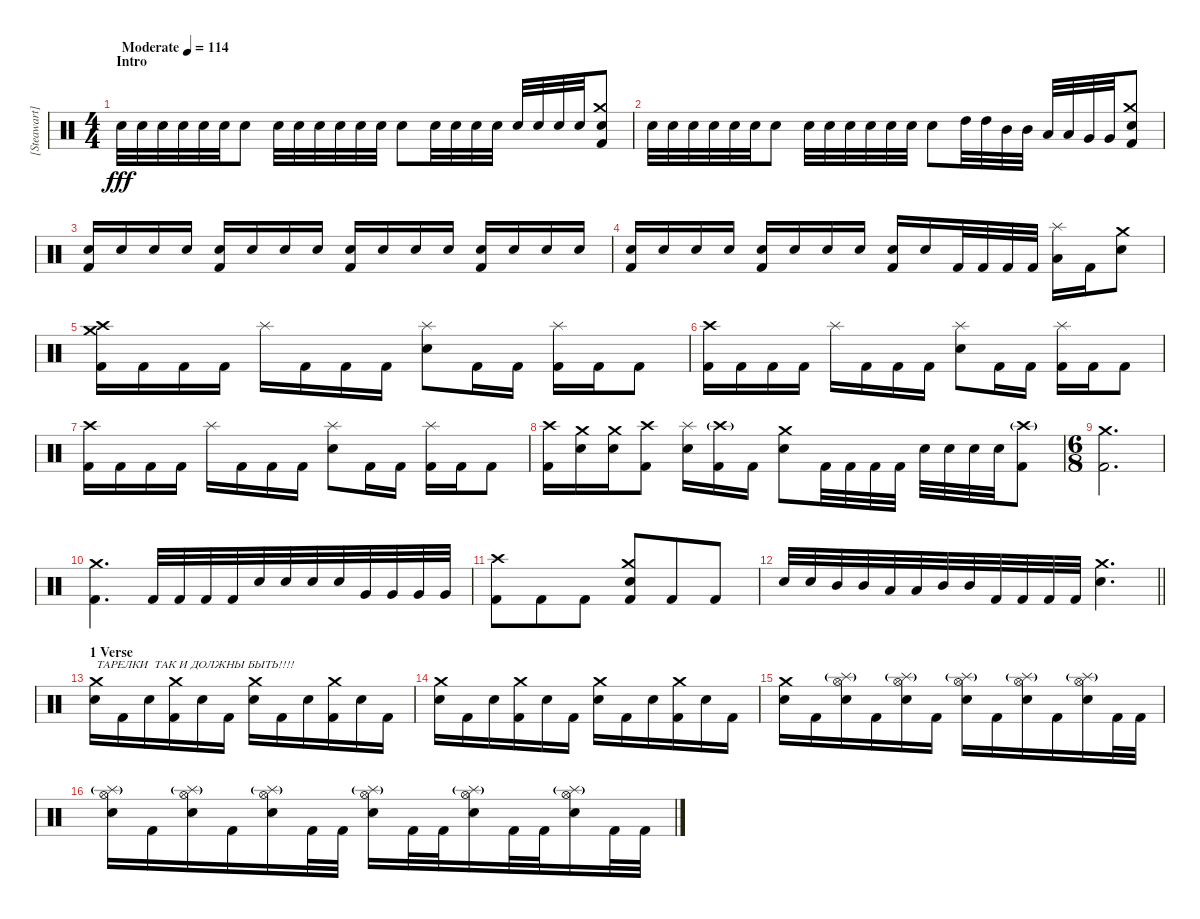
\track ("[Steawart] Drums" "[Steawart]") {solo instrument percussion}
\staff {score}
\articulation defaults
\ts (4 4)
\section ("" "Intro ")
\tempo (114 "Moderate")
\clef neutral
\ks c "Electric Snare (hit)".32{dy fff} "Electric Snare (hit)".32 "Electric Snare (hit)".32 "Electric Snare (hit)".32 "Electric Snare (hit)".32 "Electric Snare (hit)".32 "Electric Snare (hit)".8 "Electric Snare (hit)".32 "Electric Snare (hit)".32 "Electric Snare (hit)".32 "Electric Snare (hit)".32 "Electric Snare (hit)".32 "Electric Snare (hit)".32 "Electric Snare (hit)".8 "Electric Snare (hit)".32 "Electric Snare (hit)".32 "Electric Snare (hit)".32 "Electric Snare (hit)".32 "Electric Snare (hit)".32 "Electric Snare (hit)".32 "Electric Snare (hit)".32 "Electric Snare (hit)".32
("Crash medium (hit)" "Electric Snare (hit)" "Kick (hit) 2").8 |
"Electric Snare (hit)".32 "Electric Snare (hit)".32 "Electric Snare (hit)".32 "Electric Snare (hit)".32 "Electric Snare (hit)".32 "Electric Snare (hit)".32 "Electric Snare (hit)".8 "Electric Snare (hit)".32 "Electric Snare (hit)".32 "Electric Snare (hit)".32 "Electric Snare (hit)".32 "Electric Snare (hit)".32 "Electric Snare (hit)".32 "Electric Snare (hit)".8 "High Tom (hit)".32 "High Tom (hit)".32 "Mid Tom (hit)".32 "Mid Tom (hit)".32 "Low Tom (hit)".32 "Low Tom (hit)".32 "Very Low Tom (hit)".32 "Very Low Tom (hit)".32 ("Crash medium (hit)" "Electric Snare (hit)" "Kick (hit) 2").8 |
("Electric Snare (hit)" "Kick (hit) 2").16 "Electric Snare (hit)".16 "Electric Snare (hit)".16 "Electric Snare (hit)".16 ("Electric Snare (hit)" "Kick (hit) 2").16 "Electric Snare (hit)".16 "Electric Snare (hit)".16 "Electric Snare (hit)".16 ("Electric Snare (hit)" "Kick (hit) 2").16 "Electric Snare (hit)".16 "Electric Snare (hit)".16 "Electric Snare (hit)".16 ("Electric Snare (hit)" "Kick (hit) 2").16 "Electric Snare (hit)".16 "Electric Snare (hit)".16 "Electric Snare (hit)".16 |
("Electric Snare (hit)" "Kick (hit) 2").16 "Electric Snare (hit)".16 "Electric Snare (hit)".16 "Electric Snare (hit)".16 ("Electric Snare (hit)" "Kick (hit) 2").16 "Electric Snare (hit)".16 "Electric Snare (hit)".16 "Electric Snare (hit)".16 ("Electric Snare (hit)" "Kick (hit) 2").16 "Electric Snare (hit)".16 "Kick (hit) 2".32 "Kick (hit) 2".32 "Kick (hit) 2".32 "Kick (hit) 2".32 ("Splash (hit)" "Low Tom (hit)").16 "Kick (hit) 2".16 ("Crash medium (hit)" "Electric Snare (hit)").8 |
("Crash medium (hit)" "Crash high (hit)" "Kick (hit) 2").16 "Kick (hit) 2".16 "Kick (hit) 2".16 "Kick (hit) 2".16 "Splash (hit)".16 "Kick (hit) 2".16 "Kick (hit) 2".16 "Kick (hit) 2".16 ("Splash (hit)" "Electric Snare (hit)").8 "Kick (hit) 2".16 "Kick (hit) 2".16 ("Splash (hit)" "Kick (hit) 2").16 "Kick (hit) 2".16 "Kick (hit) 2".8 |
("Crash high (hit)" "Kick (hit) 2").16 "Kick (hit) 2".16 "Kick (hit) 2".16 "Kick (hit) 2".16 "Splash (hit)".16 "Kick (hit) 2".16 "Kick (hit) 2".16 "Kick (hit) 2".16 ("Splash (hit)" "Electric Snare (hit)").8 "Kick (hit) 2".16 "Kick (hit) 2".16 ("Splash (hit)" "Kick (hit) 2").16 "Kick (hit) 2".16 "Kick (hit) 2".8 |
("Crash high (hit)" "Kick (hit) 2").16 "Kick (hit) 2".16 "Kick (hit) 2".16 "Kick (hit) 2".16 "Splash (hit)".16 "Kick (hit) 2".16 "Kick (hit) 2".16 "Kick (hit) 2".16 ("Splash (hit)" "Electric Snare (hit)").8 "Kick (hit) 2".16 "Kick (hit) 2".16 ("Splash (hit)" "Kick (hit) 2").16 "Kick (hit) 2".16 "Kick (hit) 2".8 |
("Crash high (hit)" "Kick (hit) 2").16 ("Crash medium (hit)" "Electric Snare (hit)").16 ("Crash medium (hit)" "Electric Snare (hit)").16 ("Crash high (hit)" "Kick (hit) 2").8 ("Splash (hit)" "Electric Snare (hit)").16 ("Crash high (hit)"{g} "Kick (hit) 2").16 "Kick (hit) 2".16 ("Crash medium (hit)" "Electric Snare (hit)").8 "Kick (hit) 2".32 "Kick (hit) 2".32 "Kick (hit) 2".32 "Kick (hit) 2".32 "Electric Snare (hit)".32 "Electric Snare (hit)".32 "Electric Snare (hit)".32 "Electric Snare (hit)".32 ("Crash high (hit)"{g} "Kick (hit) 2").8 |
\ts (6 8)
("Crash medium (hit)" "Kick (hit) 2").2{d} |
("Crash medium (hit)" "Kick (hit) 2").4{d} "Kick (hit) 2".32 "Kick (hit) 2".32 "Kick (hit) 2".32 "Kick (hit) 2".32 "Electric Snare (hit)".32 "Electric Snare (hit)".32 "Electric Snare (hit)".32 "Electric Snare (hit)".32 "Very Low Tom (hit)".32 "Very Low Tom (hit)".32 "Very Low Tom (hit)".32 "Very Low Tom (hit)".32 |
("Crash high (hit)" "Kick (hit) 2").8 "Kick (hit) 2".8 "Kick (hit) 2".8 ("Crash medium (hit)" "Electric Snare (hit)" "Kick (hit) 2").8 "Kick (hit) 2".8 "Kick (hit) 2".8 |
\barLineRight lightlight "Electric Snare (hit)".32 "Electric Snare (hit)".32 "Mid Tom (hit)".32 "Mid Tom (hit)".32 "Low Tom (hit)".32 "Low Tom (hit)".32 "Mid Tom (hit)".32 "Mid Tom (hit)".32 "Kick (hit) 2".32 "Kick (hit) 2".32 "Kick (hit) 2".32 "Kick (hit) 2".32
("Crash medium (hit)" "Electric Snare (hit)").4{d} |
\section ("" "1 Verse ")
("Crash medium (hit)" "Electric Snare (hit)").16{txt "ТАРЕЛКИ  ТАК И ДОЛЖНЫ БЫТЬ!!!!"} "Kick (hit) 2".16 "Electric Snare (hit)".16 ("Crash medium (hit)" "Kick (hit) 2").16 "Electric Snare (hit)".16 "Kick (hit) 2".16 ("Crash medium (hit)" "Electric Snare (hit)").16 "Kick (hit) 2".16 "Electric Snare (hit)".16 ("Crash medium (hit)" "Kick (hit) 2").16 "Electric Snare (hit)".16 "Kick (hit) 2".16 |
("Crash medium (hit)" "Electric Snare (hit)").16 "Kick (hit) 2".16 "Electric Snare (hit)".16 ("Crash medium (hit)" "Kick (hit) 2").16 "Electric Snare (hit)".16 "Kick (hit) 2".16 ("Crash medium (hit)" "Electric Snare (hit)").16 "Kick (hit) 2".16 "Electric Snare (hit)".16 ("Crash medium (hit)" "Kick (hit) 2").16 "Electric Snare (hit)".16 "Kick (hit) 2".16 |
("Crash medium (hit)" "Electric Snare (hit)").16 "Kick (hit) 2".16 ("Hi-Hat (open)" "Splash (hit)"{g} "Electric Snare (hit)").16 "Kick (hit) 2".16 ("Hi-Hat (open)" "Splash (hit)"{g} "Electric Snare (hit)").16 "Kick (hit) 2".16 ("Hi-Hat (open)" "Splash (hit)"{g} "Electric Snare (hit)").16 "Kick (hit) 2".16 ("Hi-Hat (open)" "Splash (hit)"{g} "Electric Snare (hit)").16 "Kick (hit) 2".16 ("Hi-Hat (open)" "Splash (hit)"{g} "Electric Snare (hit)").16 "Kick (hit) 2".32 "Kick (hit) 2".32 |
("Hi-Hat (open)" "Splash (hit)"{g} "Electric Snare (hit)").16 "Kick (hit) 2".16 ("Hi-Hat (open)" "Splash (hit)"{g} "Electric Snare (hit)").16 "Kick (hit) 2".16 ("Hi-Hat (open)" "Splash (hit)"{g} "Electric Snare (hit)").16 "Kick (hit) 2".32 "Kick (hit) 2".32 ("Hi-Hat (open)" "Splash (hit)"{g} "Electric Snare (hit)").16 "Kick (hit) 2".32 "Kick (hit) 2".32 ("Hi-Hat (open)" "Splash (hit)"{g} "Electric Snare (hit)").16 "Kick (hit) 2".32 "Kick (hit) 2".32 ("Hi-Hat (open)" "Splash (hit)"{g} "Electric Snare (hit)").16 "Kick (hit) 2".32 "Kick (hit) 2".32
